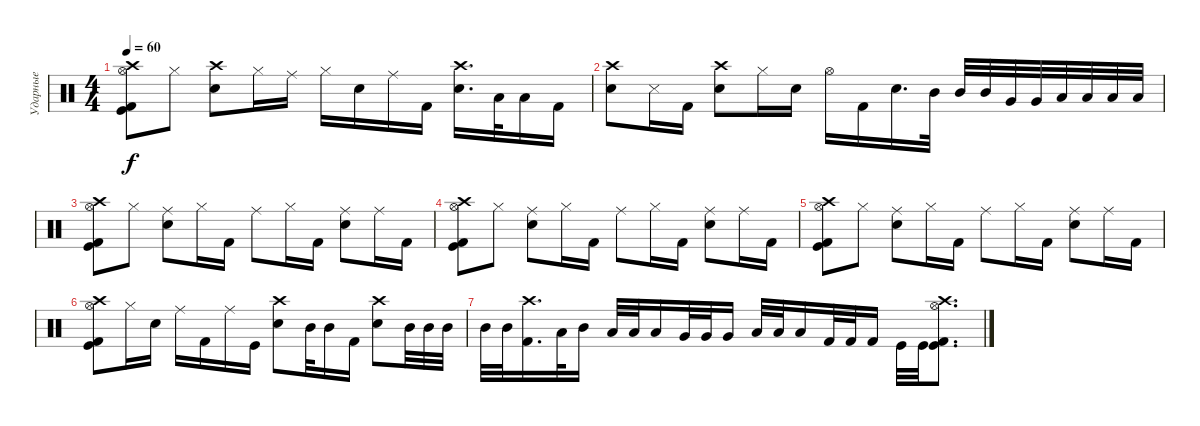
\track ("Ударные" "Ударные") {instrument percussion}
\staff {score}
\articulation defaults
\ts (4 4)
\tempo 60
\clef neutral
\ks c
("Crash high (hit)" "Hi-Hat (open)" "Kick (hit)" "Kick (hit) 2").8{dy f} "Hi-Hat (closed)".8 ("Crash high (hit)" "Snare (hit) 2").8 "Hi-Hat (closed)".16 "Ride (middle)".16 "Hi-Hat (closed)".16 "Snare (hit) 2".16 "Ride (middle)".16 "Kick (hit) 2".16 ("Crash high (hit)" "Snare (hit) 2").16{d} "Low Tom (hit)".32 "Low Tom (hit)".16 "Kick (hit) 2".16 |
("Crash high (hit)" "Snare (hit) 2").8 "Snare (side stick) 3".16 "Kick (hit) 2".16 ("Crash high (hit)" "Snare (hit) 2").8 "Hi-Hat (closed)".16 "Snare (hit) 2".16 "Hi-Hat (open)".16 "Kick (hit) 2".16 "Snare (hit) 2".16{d} "Mid Tom (hit)".32 "Mid Tom (hit)".32 "Mid Tom (hit)".32 "Very Low Tom (hit)".32 "Very Low Tom (hit)".32 "Low Tom (hit)".32 "Low Tom (hit)".32 "Low Floor Tom (hit)".32 "Low Floor Tom (hit)".32 |
("Crash high (hit)" "Hi-Hat (open)" "Kick (hit)" "Kick (hit) 2").8 "Hi-Hat (closed)".8 ("Ride (middle)" "Snare (hit) 2").8 "Hi-Hat (closed)".16 "Kick (hit) 2".16 "Ride (middle)".8 "Hi-Hat (closed)".16 "Kick (hit) 2".16 ("Ride (middle)" "Snare (hit) 2").8 "Ride (middle)".16 "Kick (hit) 2".16 |
("Crash high (hit)" "Hi-Hat (open)" "Kick (hit)" "Kick (hit) 2").8 "Hi-Hat (closed)".8 ("Ride (middle)" "Snare (hit) 2").8 "Hi-Hat (closed)".16 "Kick (hit) 2".16 "Ride (middle)".8 "Hi-Hat (closed)".16 "Kick (hit) 2".16 ("Ride (middle)" "Snare (hit) 2").8 "Ride (middle)".16 "Kick (hit) 2".16 |
("Crash high (hit)" "Hi-Hat (open)" "Kick (hit)" "Kick (hit) 2").8 "Hi-Hat (closed)".8 ("Ride (middle)" "Snare (hit) 2").8 "Hi-Hat (closed)".16 "Kick (hit) 2".16 "Ride (middle)".8 "Hi-Hat (closed)".16 "Kick (hit) 2".16 ("Ride (middle)" "Snare (hit) 2").8 "Ride (middle)".16 "Kick (hit) 2".16 |
("Hi-Hat (open)" "Crash high (hit)" "Kick (hit)" "Kick (hit) 2").8 "Hi-Hat (closed)".16 "Snare (hit) 2".16 "Ride (middle)".16 "Kick (hit) 2".16 "Ride (middle)".16 "Kick (hit)".16 ("Crash high (hit)" "Snare (hit) 2").8 "Mid Tom (hit)".32 "Mid Tom (hit)".16 "Kick (hit) 2".16 ("Crash high (hit)" "Snare (hit) 2").8 "Mid Tom (hit)".32 "Mid Tom (hit)".32 "Mid Tom (hit)".32 |
"Mid Tom (hit)".32 "Mid Tom (hit)".32 ("Crash high (hit)" "Kick (hit) 2").16{d} "Low Tom (hit)".32 "Mid Tom (hit)".16 "Low Tom (hit)".32 "Low Tom (hit)".32 "Low Tom (hit)".16 "Very Low Tom (hit)".32 "Very Low Tom (hit)".32 "Very Low Tom (hit)".16 "Low Floor Tom (hit)".32 "Low Floor Tom (hit)".32 "Low Floor Tom (hit)".16 "Kick (hit) 2".32 "Kick (hit) 2".32 "Kick (hit) 2".16 "Kick (hit)".32 "Kick (hit)".32 ("Crash high (hit)" "Kick (hit)" "Kick (hit) 2" "Hi-Hat (open)").8{d}
